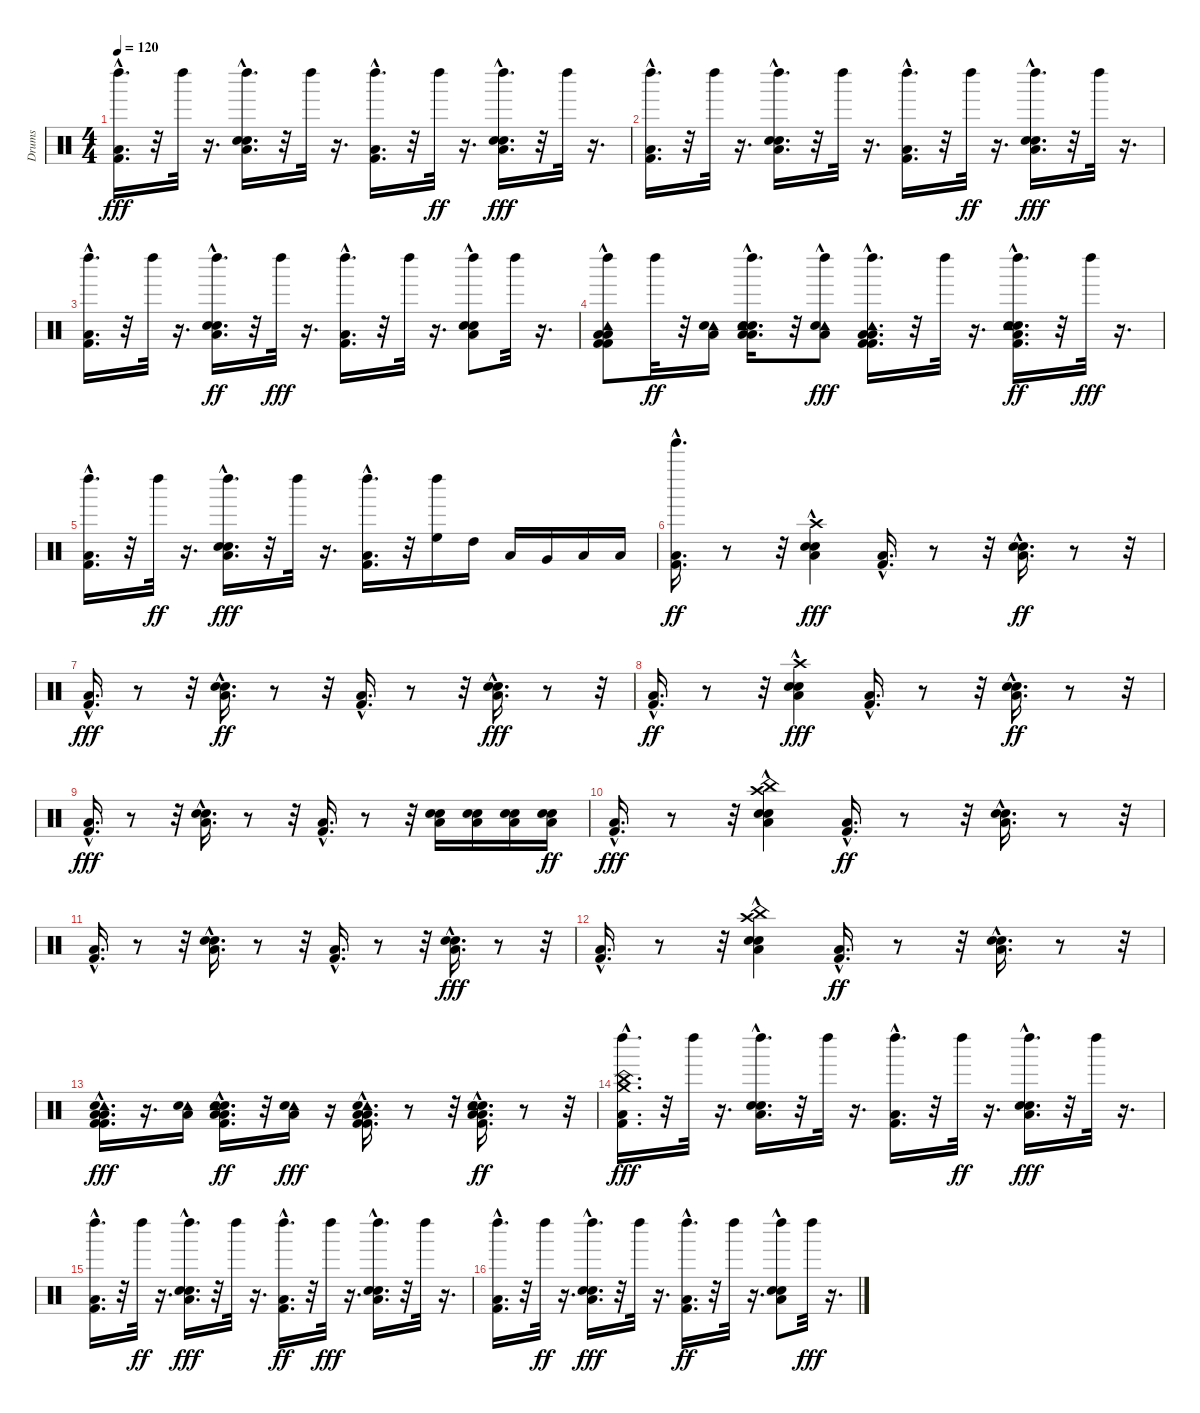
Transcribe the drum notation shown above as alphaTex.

\track ("Drums" "Drums") {instrument percussion}
\staff {score}
\articulation defaults
\ts (4 4)
\tempo 120
\clef neutral
\ks c
("Left Maraca (hit)" "Low Floor Tom (hit)"{hac} "Kick (hit) 2"{hac}).16{d dy fff} r.32 "Left Maraca (hit)".32 r.16{d} ("Left Maraca (hit)" "Electric Snare (hit)"{hac} "Low Floor Tom (hit)"{hac} "Snare (hit) 2"{hac}).16{d} r.32 "Left Maraca (hit)".32 r.16{d} ("Left Maraca (hit)" "Low Floor Tom (hit)"{hac} "Kick (hit) 2"{hac}).16{d} r.32 "Left Maraca (hit)".32{dy ff} r.16{d} ("Left Maraca (hit)" "Electric Snare (hit)"{hac} "Low Floor Tom (hit)"{hac} "Snare (hit) 2"{hac}).16{d dy fff} r.32 "Left Maraca (hit)".32 r.16{d} |
("Left Maraca (hit)" "Low Floor Tom (hit)"{hac} "Kick (hit) 2"{hac}).16{d} r.32 "Left Maraca (hit)".32 r.16{d} ("Left Maraca (hit)" "Electric Snare (hit)"{hac} "Low Floor Tom (hit)"{hac} "Snare (hit) 2"{hac}).16{d} r.32 "Left Maraca (hit)".32 r.16{d} ("Left Maraca (hit)" "Low Floor Tom (hit)"{hac} "Kick (hit) 2"{hac}).16{d} r.32 "Left Maraca (hit)".32{dy ff} r.16{d} ("Left Maraca (hit)" "Electric Snare (hit)"{hac} "Low Floor Tom (hit)"{hac} "Snare (hit) 2"{hac}).16{d dy fff} r.32 "Left Maraca (hit)".32 r.16{d} |
("Left Maraca (hit)" "Low Floor Tom (hit)"{hac} "Kick (hit) 2"{hac}).16{d} r.32 "Left Maraca (hit)".32 r.16{d} ("Left Maraca (hit)" "Electric Snare (hit)"{hac} "Low Floor Tom (hit)"{hac} "Snare (hit) 2"{hac}).16{d dy ff} r.32 "Left Maraca (hit)".32{dy fff} r.16{d} ("Left Maraca (hit)" "Low Floor Tom (hit)"{hac} "Kick (hit) 2"{hac}).16{d} r.32 "Left Maraca (hit)".32 r.16{d} ("Left Maraca (hit)" "Electric Snare (hit)"{hac} "Low Floor Tom (hit)"{hac} "Snare (hit) 2").8 "Left Maraca (hit)".32 r.16{d} |
("Left Maraca (hit)" "Low Floor Tom (hit)"{hac} "Kick (hit) 2" "Tambourine (hit)" "Low Floor Tom (hit)"{hac} "Kick (hit) 2").8 "Left Maraca (hit)".32{dy ff} r.32 ("Tambourine (hit)" "Low Floor Tom (hit)" "Snare (hit) 2").16 ("Left Maraca (hit)" "Electric Snare (hit)"{hac} "Low Floor Tom (hit)"{hac} "Snare (hit) 2"{hac} "Tambourine (hit)" "Low Floor Tom (hit)"{hac}).16{d} r.32 ("Left Maraca (hit)" "Tambourine (hit)" "Low Floor Tom (hit)" "Snare (hit) 2"{hac}).8{dy fff} ("Left Maraca (hit)" "Low Floor Tom (hit)"{hac} "Kick (hit) 2"{hac} "Tambourine (hit)" "Low Floor Tom (hit)"{hac} "Kick (hit) 2"{hac}).16{d} r.32 "Left Maraca (hit)".32 r.16{d} ("Left Maraca (hit)" "Electric Snare (hit)"{hac} "Low Floor Tom (hit)"{hac} "Snare (hit) 2"{hac} "Tambourine (hit)" "Kick (hit) 2").16{d dy ff} r.32 "Left Maraca (hit)".32{dy fff} r.16{d} |
("Left Maraca (hit)" "Low Floor Tom (hit)"{hac} "Kick (hit) 2"{hac}).16{d} r.32 "Left Maraca (hit)".32{dy ff} r.16{d} ("Left Maraca (hit)" "Electric Snare (hit)"{hac} "Low Floor Tom (hit)"{hac} "Snare (hit) 2"{hac}).16{d dy fff} r.32 "Left Maraca (hit)".32 r.16{d} ("Left Maraca (hit)" "Low Floor Tom (hit)"{hac} "Kick (hit) 2"{hac}).16{d} r.32 ("High Floor Tom (hit)" "Left Maraca (hit)").16 "High Tom (hit)".16 "Low Tom (hit)".16 "Very Low Tom (hit)".16 "Low Floor Tom (hit)".16 "Low Floor Tom (hit)".16 |
("Tinkle Bell (hit)" "Low Floor Tom (hit)"{hac} "Kick (hit) 2"{hac}).16{d dy ff} r.8 r.32 ("Crash high (hit)" "Electric Snare (hit)"{hac} "Low Floor Tom (hit)"{hac} "Snare (hit) 2"{hac}).4{dy fff} ("Low Floor Tom (hit)"{hac} "Kick (hit) 2"{hac}).16{d} r.8 r.32 ("Electric Snare (hit)"{hac} "Low Floor Tom (hit)"{hac} "Snare (hit) 2"{hac}).16{d dy ff} r.8 r.32 |
("Low Floor Tom (hit)"{hac} "Kick (hit) 2"{hac}).16{d dy fff} r.8 r.32 ("Electric Snare (hit)"{hac} "Low Floor Tom (hit)"{hac} "Snare (hit) 2"{hac}).16{d dy ff} r.8 r.32 ("Low Floor Tom (hit)"{hac} "Kick (hit) 2"{hac}).16{d} r.8 r.32 ("Electric Snare (hit)"{hac} "Low Floor Tom (hit)"{hac} "Snare (hit) 2"{hac}).16{d dy fff} r.8 r.32 |
("Low Floor Tom (hit)"{hac} "Kick (hit) 2"{hac}).16{d dy ff} r.8 r.32 ("Crash high (hit)" "Electric Snare (hit)"{hac} "Low Floor Tom (hit)"{hac} "Snare (hit) 2"{hac}).4{dy fff} ("Low Floor Tom (hit)"{hac} "Kick (hit) 2"{hac}).16{d} r.8 r.32 ("Electric Snare (hit)"{hac} "Low Floor Tom (hit)"{hac} "Snare (hit) 2"{hac}).16{d dy ff} r.8 r.32 |
("Low Floor Tom (hit)"{hac} "Kick (hit) 2"{hac}).16{d dy fff} r.8 r.32 ("Electric Snare (hit)"{hac} "Low Floor Tom (hit)"{hac} "Snare (hit) 2"{hac}).16{d} r.8 r.32 ("Low Floor Tom (hit)"{hac} "Kick (hit) 2"{hac}).16{d} r.8 r.32 ("Electric Snare (hit)" "Low Floor Tom (hit)" "Snare (hit) 2").16 ("Electric Snare (hit)" "Snare (hit) 2" "Low Floor Tom (hit)").16 ("Electric Snare (hit)" "Low Floor Tom (hit)" "Snare (hit) 2").16 ("Low Floor Tom (hit)" "Electric Snare (hit)" "Snare (hit) 2").16{dy ff} |
("Low Floor Tom (hit)"{hac} "Kick (hit) 2"{hac}).16{d dy fff} r.8 r.32 ("Crash high (hit)" "China (hit)" "Electric Snare (hit)"{hac} "Low Floor Tom (hit)"{hac} "Snare (hit) 2"{hac}).4 ("Low Floor Tom (hit)"{hac} "Kick (hit) 2"{hac}).16{d dy ff} r.8 r.32 ("Electric Snare (hit)"{hac} "Low Floor Tom (hit)"{hac} "Snare (hit) 2"{hac}).16{d} r.8 r.32 |
("Low Floor Tom (hit)"{hac} "Kick (hit) 2"{hac}).16{d} r.8 r.32 ("Electric Snare (hit)"{hac} "Low Floor Tom (hit)"{hac} "Snare (hit) 2"{hac}).16{d} r.8 r.32 ("Low Floor Tom (hit)"{hac} "Kick (hit) 2"{hac}).16{d} r.8 r.32 ("Electric Snare (hit)"{hac} "Low Floor Tom (hit)"{hac} "Snare (hit) 2"{hac}).16{d dy fff} r.8 r.32 |
("Low Floor Tom (hit)"{hac} "Kick (hit) 2"{hac}).16{d} r.8 r.32 ("Crash high (hit)" "China (hit)" "Electric Snare (hit)"{hac} "Low Floor Tom (hit)"{hac} "Snare (hit) 2"{hac}).4 ("Low Floor Tom (hit)"{hac} "Kick (hit) 2"{hac}).16{d dy ff} r.8 r.32 ("Electric Snare (hit)"{hac} "Low Floor Tom (hit)"{hac} "Snare (hit) 2"{hac}).16{d} r.8 r.32 |
("Low Floor Tom (hit)"{hac} "Kick (hit) 2"{hac} "Tambourine (hit)" "Low Floor Tom (hit)"{hac} "Kick (hit) 2"{hac} "Snare (hit) 2"{hac}).16{d dy fff} r.16{d} ("Tambourine (hit)" "Low Floor Tom (hit)" "Snare (hit) 2").16 ("Electric Snare (hit)"{hac} "Low Floor Tom (hit)"{hac} "Snare (hit) 2"{hac} "Tambourine (hit)" "Low Floor Tom (hit)"{hac} "Kick (hit) 2").16{d dy ff} r.32 ("Tambourine (hit)" "Low Floor Tom (hit)" "Snare (hit) 2").16{dy fff} r.16 ("Low Floor Tom (hit)"{hac} "Kick (hit) 2"{hac} "Tambourine (hit)" "Low Floor Tom (hit)"{hac} "Kick (hit) 2"{hac} "Snare (hit) 2").16{d} r.8 r.32 ("Electric Snare (hit)"{hac} "Low Floor Tom (hit)"{hac} "Snare (hit) 2"{hac} "Tambourine (hit)" "Kick (hit) 2" "Low Floor Tom (hit)"{hac}).16{d dy ff} r.8 r.32 |
("Crash medium (hit)" "China (hit)" "Left Maraca (hit)" "Low Floor Tom (hit)"{hac} "Kick (hit) 2"{hac}).16{d dy fff} r.32 "Left Maraca (hit)".32 r.16{d} ("Left Maraca (hit)" "Electric Snare (hit)"{hac} "Low Floor Tom (hit)"{hac} "Snare (hit) 2"{hac}).16{d} r.32 "Left Maraca (hit)".32 r.16{d} ("Left Maraca (hit)" "Low Floor Tom (hit)"{hac} "Kick (hit) 2"{hac}).16{d} r.32 "Left Maraca (hit)".32{dy ff} r.16{d} ("Left Maraca (hit)" "Electric Snare (hit)"{hac} "Low Floor Tom (hit)"{hac} "Snare (hit) 2"{hac}).16{d dy fff} r.32 "Left Maraca (hit)".32 r.16{d} |
("Left Maraca (hit)" "Low Floor Tom (hit)"{hac} "Kick (hit) 2"{hac}).16{d} r.32 "Left Maraca (hit)".32{dy ff} r.16{d} ("Left Maraca (hit)" "Electric Snare (hit)"{hac} "Low Floor Tom (hit)"{hac} "Snare (hit) 2"{hac}).16{d dy fff} r.32 "Left Maraca (hit)".32 r.16{d} ("Left Maraca (hit)" "Low Floor Tom (hit)"{hac} "Kick (hit) 2"{hac}).16{d dy ff} r.32 "Left Maraca (hit)".32{dy fff} r.16{d} ("Left Maraca (hit)" "Electric Snare (hit)"{hac} "Low Floor Tom (hit)"{hac} "Snare (hit) 2"{hac}).16{d} r.32 "Left Maraca (hit)".32 r.16{d} |
("Left Maraca (hit)" "Low Floor Tom (hit)"{hac} "Kick (hit) 2"{hac}).16{d} r.32 "Left Maraca (hit)".32{dy ff} r.16{d} ("Left Maraca (hit)" "Electric Snare (hit)"{hac} "Low Floor Tom (hit)"{hac} "Snare (hit) 2"{hac}).16{d dy fff} r.32 "Left Maraca (hit)".32 r.16{d} ("Left Maraca (hit)" "Low Floor Tom (hit)"{hac} "Kick (hit) 2"{hac}).16{d dy ff} r.32 "Left Maraca (hit)".32 r.16{d} ("Left Maraca (hit)" "Electric Snare (hit)"{hac} "Low Floor Tom (hit)"{hac} "Snare (hit) 2").8 "Left Maraca (hit)".32{dy fff} r.16{d}
